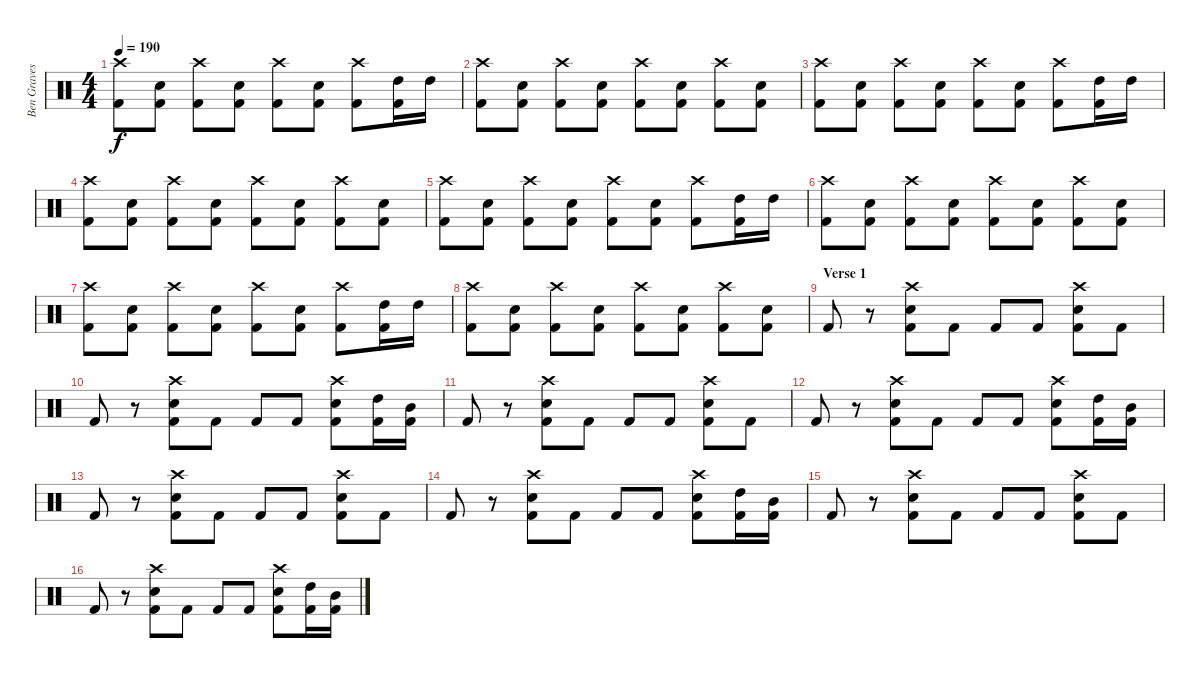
\track ("Ben Graves" "Ben Graves") {instrument percussion}
\staff {score}
\articulation defaults
\ts (4 4)
\tempo 190
\clef neutral
\ks c
("Crash high (hit)" "Kick (hit) 2").8{dy f} ("Electric Snare (hit)" "Kick (hit) 2").8 ("Crash high (hit)" "Kick (hit) 2").8 ("Electric Snare (hit)" "Kick (hit) 2").8 ("Crash high (hit)" "Kick (hit) 2").8 ("Electric Snare (hit)" "Kick (hit) 2").8 ("Crash high (hit)" "Kick (hit) 2").8 ("High Tom (hit)" "Kick (hit) 2").16 "High Tom (hit)".16 |
("Crash high (hit)" "Kick (hit) 2").8 ("Electric Snare (hit)" "Kick (hit) 2").8 ("Crash high (hit)" "Kick (hit) 2").8 ("Electric Snare (hit)" "Kick (hit) 2").8 ("Crash high (hit)" "Kick (hit) 2").8 ("Electric Snare (hit)" "Kick (hit) 2").8 ("Crash high (hit)" "Kick (hit) 2").8 ("Electric Snare (hit)" "Kick (hit) 2").8 |
("Crash high (hit)" "Kick (hit) 2").8 ("Electric Snare (hit)" "Kick (hit) 2").8 ("Crash high (hit)" "Kick (hit) 2").8 ("Electric Snare (hit)" "Kick (hit) 2").8 ("Crash high (hit)" "Kick (hit) 2").8 ("Electric Snare (hit)" "Kick (hit) 2").8 ("Crash high (hit)" "Kick (hit) 2").8 ("High Tom (hit)" "Kick (hit) 2").16 "High Tom (hit)".16 |
("Crash high (hit)" "Kick (hit) 2").8 ("Electric Snare (hit)" "Kick (hit) 2").8 ("Crash high (hit)" "Kick (hit) 2").8 ("Electric Snare (hit)" "Kick (hit) 2").8 ("Crash high (hit)" "Kick (hit) 2").8 ("Electric Snare (hit)" "Kick (hit) 2").8 ("Crash high (hit)" "Kick (hit) 2").8 ("Electric Snare (hit)" "Kick (hit) 2").8 |
("Crash high (hit)" "Kick (hit) 2").8 ("Electric Snare (hit)" "Kick (hit) 2").8 ("Crash high (hit)" "Kick (hit) 2").8 ("Electric Snare (hit)" "Kick (hit) 2").8 ("Crash high (hit)" "Kick (hit) 2").8 ("Electric Snare (hit)" "Kick (hit) 2").8 ("Crash high (hit)" "Kick (hit) 2").8 ("High Tom (hit)" "Kick (hit) 2").16 "High Tom (hit)".16 |
("Crash high (hit)" "Kick (hit) 2").8 ("Electric Snare (hit)" "Kick (hit) 2").8 ("Crash high (hit)" "Kick (hit) 2").8 ("Electric Snare (hit)" "Kick (hit) 2").8 ("Crash high (hit)" "Kick (hit) 2").8 ("Electric Snare (hit)" "Kick (hit) 2").8 ("Crash high (hit)" "Kick (hit) 2").8 ("Electric Snare (hit)" "Kick (hit) 2").8 |
("Crash high (hit)" "Kick (hit) 2").8 ("Electric Snare (hit)" "Kick (hit) 2").8 ("Crash high (hit)" "Kick (hit) 2").8 ("Electric Snare (hit)" "Kick (hit) 2").8 ("Crash high (hit)" "Kick (hit) 2").8 ("Electric Snare (hit)" "Kick (hit) 2").8 ("Crash high (hit)" "Kick (hit) 2").8 ("High Tom (hit)" "Kick (hit) 2").16 "High Tom (hit)".16 |
("Crash high (hit)" "Kick (hit) 2").8 ("Electric Snare (hit)" "Kick (hit) 2").8 ("Crash high (hit)" "Kick (hit) 2").8 ("Electric Snare (hit)" "Kick (hit) 2").8 ("Crash high (hit)" "Kick (hit) 2").8 ("Electric Snare (hit)" "Kick (hit) 2").8 ("Crash high (hit)" "Kick (hit) 2").8 ("Electric Snare (hit)" "Kick (hit) 2").8 |
\section ("" "Verse 1")
"Kick (hit) 2".8 r.8 ("Crash high (hit)" "Electric Snare (hit)" "Kick (hit) 2").8 "Kick (hit) 2".8 "Kick (hit) 2".8 "Kick (hit) 2".8 ("Crash high (hit)" "Electric Snare (hit)" "Kick (hit) 2").8 "Kick (hit) 2".8 |
"Kick (hit) 2".8 r.8 ("Crash high (hit)" "Electric Snare (hit)" "Kick (hit) 2").8 "Kick (hit) 2".8 "Kick (hit) 2".8 "Kick (hit) 2".8 ("Crash high (hit)" "Electric Snare (hit)" "Kick (hit) 2").8 ("High Tom (hit)" "Kick (hit) 2").16 ("Mid Tom (hit)" "Kick (hit) 2").16 |
"Kick (hit) 2".8 r.8 ("Crash high (hit)" "Electric Snare (hit)" "Kick (hit) 2").8 "Kick (hit) 2".8 "Kick (hit) 2".8 "Kick (hit) 2".8 ("Crash high (hit)" "Electric Snare (hit)" "Kick (hit) 2").8 "Kick (hit) 2".8 |
"Kick (hit) 2".8 r.8 ("Crash high (hit)" "Electric Snare (hit)" "Kick (hit) 2").8 "Kick (hit) 2".8 "Kick (hit) 2".8 "Kick (hit) 2".8 ("Crash high (hit)" "Electric Snare (hit)" "Kick (hit) 2").8 ("High Tom (hit)" "Kick (hit) 2").16 ("Mid Tom (hit)" "Kick (hit) 2").16 |
"Kick (hit) 2".8 r.8 ("Crash high (hit)" "Electric Snare (hit)" "Kick (hit) 2").8 "Kick (hit) 2".8 "Kick (hit) 2".8 "Kick (hit) 2".8 ("Crash high (hit)" "Electric Snare (hit)" "Kick (hit) 2").8 "Kick (hit) 2".8 |
"Kick (hit) 2".8 r.8 ("Crash high (hit)" "Electric Snare (hit)" "Kick (hit) 2").8 "Kick (hit) 2".8 "Kick (hit) 2".8 "Kick (hit) 2".8 ("Crash high (hit)" "Electric Snare (hit)" "Kick (hit) 2").8 ("High Tom (hit)" "Kick (hit) 2").16 ("Mid Tom (hit)" "Kick (hit) 2").16 |
"Kick (hit) 2".8 r.8 ("Crash high (hit)" "Electric Snare (hit)" "Kick (hit) 2").8 "Kick (hit) 2".8 "Kick (hit) 2".8 "Kick (hit) 2".8 ("Crash high (hit)" "Electric Snare (hit)" "Kick (hit) 2").8 "Kick (hit) 2".8 |
"Kick (hit) 2".8 r.8 ("Crash high (hit)" "Electric Snare (hit)" "Kick (hit) 2").8 "Kick (hit) 2".8 "Kick (hit) 2".8 "Kick (hit) 2".8 ("Crash high (hit)" "Electric Snare (hit)" "Kick (hit) 2").8 ("High Tom (hit)" "Kick (hit) 2").16 ("Mid Tom (hit)" "Kick (hit) 2").16
